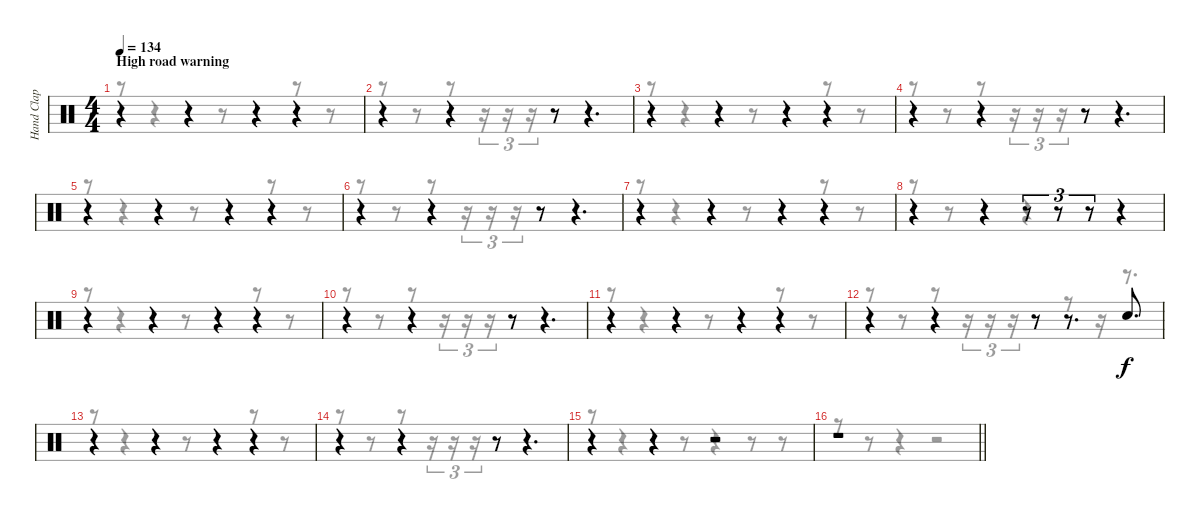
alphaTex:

\track ("Hand Clap" "Hand Clap") {instrument percussion}
\staff {score}
\articulation defaults
\voice
\ts (4 4)
\section ("" "High road warning")
\tempo 134
\clef neutral
\ks c
r.4{dy f} r.4 r.4 r.4 |
r.4 r.4 r.8 r.4{d} |
r.4 r.4 r.4 r.4 |
r.4 r.4 r.8 r.4{d} |
r.4 r.4 r.4 r.4 |
r.4 r.4 r.8 r.4{d} |
r.4 r.4 r.4 r.4 |
r.4 r.4 r.8{tu (3 2)} r.8{tu (3 2)} r.8{tu (3 2)} r.4 |
r.4 r.4 r.4 r.4 |
r.4 r.4 r.8 r.4{d} |
r.4 r.4 r.4 r.4 |
r.4 r.4 r.8 r.8{d} "Hand Clap (hit)".8{d} |
r.4 r.4 r.4 r.4 |
r.4 r.4 r.8 r.4{d} |
r.4 r.4 r.2 |
\barLineRight lightlight
r.1
\voice
\clef neutral
\ottava regular
\simile none
\ks c
r.8{dy f} r.4 r.8 r.4 r.8 r.8 |
r.8 r.8 r.8 r.16{tu (3 2)} r.16{tu (3 2)} r.16{tu (3 2)} r.8 r.4{d} |
r.8 r.4 r.8 r.4 r.8 r.8 |
r.8 r.8 r.8 r.16{tu (3 2)} r.16{tu (3 2)} r.16{tu (3 2)} r.8 r.4{d} |
r.8 r.4 r.8 r.4 r.8 r.8 |
r.8 r.8 r.8 r.16{tu (3 2)} r.16{tu (3 2)} r.16{tu (3 2)} r.8 r.4{d} |
r.8 r.4 r.8 r.4 r.8 r.8 |
r.8 r.8 r.4 r.4 r.4 |
r.8 r.4 r.8 r.4 r.8 r.8 |
r.8 r.8 r.8 r.16{tu (3 2)} r.16{tu (3 2)} r.16{tu (3 2)} r.8 r.4{d} |
r.8 r.4 r.8 r.4 r.8 r.8 |
r.8 r.8 r.8 r.16{tu (3 2)} r.16{tu (3 2)} r.16{tu (3 2)} r.8 r.8 r.16 r.8{d} |
r.8 r.4 r.8 r.4 r.8 r.8 |
r.8 r.8 r.8 r.16{tu (3 2)} r.16{tu (3 2)} r.16{tu (3 2)} r.8 r.4{d} |
r.8 r.4 r.8 r.4 r.8 r.8 |
\barLineRight lightlight
r.8 r.8 r.4 r.2
